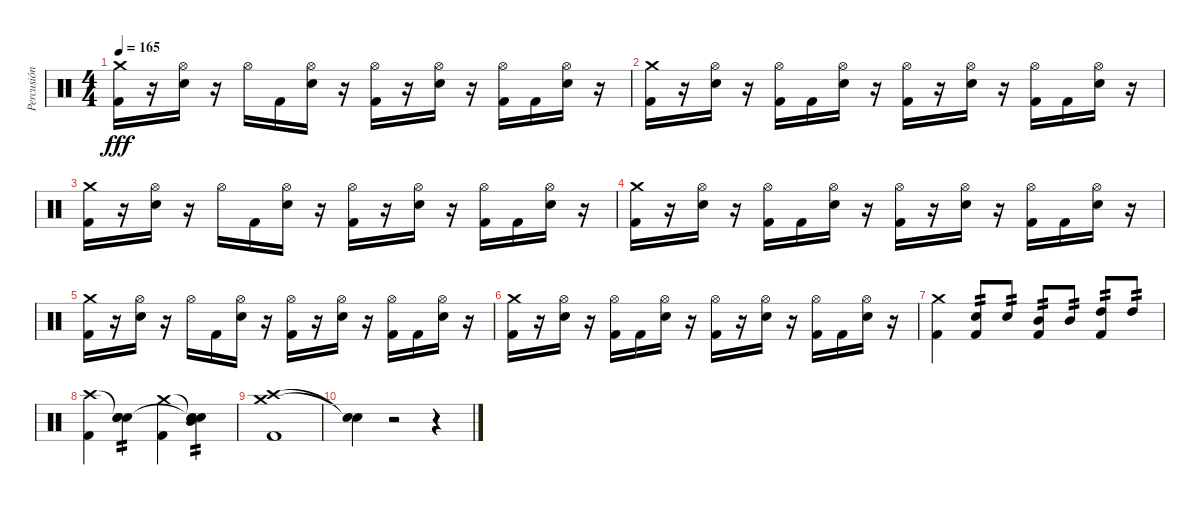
\track ("Percusión" "Percusión") {instrument percussion}
\staff {score}
\articulation defaults
\ts (4 4)
\tempo 165
\clef neutral
\ks c
("Crash medium (hit)" "Kick (hit) 2").16{dy fff} r.16 ("Hi-Hat (open)" "Electric Snare (hit)").16 r.16 "Hi-Hat (open)".16 "Kick (hit) 2".16 ("Hi-Hat (open)" "Electric Snare (hit)").16 r.16 ("Hi-Hat (open)" "Kick (hit) 2").16 r.16 ("Hi-Hat (open)" "Electric Snare (hit)").16 r.16 ("Hi-Hat (open)" "Kick (hit) 2").16 "Kick (hit) 2".16 ("Hi-Hat (open)" "Electric Snare (hit)").16 r.16 |
("Crash medium (hit)" "Kick (hit) 2").16 r.16 ("Hi-Hat (open)" "Electric Snare (hit)").16 r.16 ("Hi-Hat (open)" "Kick (hit) 2").16 "Kick (hit) 2".16 ("Hi-Hat (open)" "Electric Snare (hit)").16 r.16 ("Hi-Hat (open)" "Kick (hit) 2").16 r.16 ("Hi-Hat (open)" "Electric Snare (hit)").16 r.16 ("Hi-Hat (open)" "Kick (hit) 2").16 "Kick (hit) 2".16 ("Hi-Hat (open)" "Electric Snare (hit)").16 r.16 |
("Crash medium (hit)" "Kick (hit) 2").16 r.16 ("Hi-Hat (open)" "Electric Snare (hit)").16 r.16 "Hi-Hat (open)".16 "Kick (hit) 2".16 ("Hi-Hat (open)" "Electric Snare (hit)").16 r.16 ("Hi-Hat (open)" "Kick (hit) 2").16 r.16 ("Hi-Hat (open)" "Electric Snare (hit)").16 r.16 ("Hi-Hat (open)" "Kick (hit) 2").16 "Kick (hit) 2".16 ("Hi-Hat (open)" "Electric Snare (hit)").16 r.16 |
("Crash medium (hit)" "Kick (hit) 2").16 r.16 ("Hi-Hat (open)" "Electric Snare (hit)").16 r.16 ("Hi-Hat (open)" "Kick (hit) 2").16 "Kick (hit) 2".16 ("Hi-Hat (open)" "Electric Snare (hit)").16 r.16 ("Hi-Hat (open)" "Kick (hit) 2").16 r.16 ("Hi-Hat (open)" "Electric Snare (hit)").16 r.16 ("Hi-Hat (open)" "Kick (hit) 2").16 "Kick (hit) 2".16 ("Hi-Hat (open)" "Electric Snare (hit)").16 r.16 |
("Crash medium (hit)" "Kick (hit) 2").16 r.16 ("Hi-Hat (open)" "Electric Snare (hit)").16 r.16 "Hi-Hat (open)".16 "Kick (hit) 2".16 ("Hi-Hat (open)" "Electric Snare (hit)").16 r.16 ("Hi-Hat (open)" "Kick (hit) 2").16 r.16 ("Hi-Hat (open)" "Electric Snare (hit)").16 r.16 ("Hi-Hat (open)" "Kick (hit) 2").16 "Kick (hit) 2".16 ("Hi-Hat (open)" "Electric Snare (hit)").16 r.16 |
("Crash medium (hit)" "Kick (hit) 2").16 r.16 ("Hi-Hat (open)" "Electric Snare (hit)").16 r.16 ("Hi-Hat (open)" "Kick (hit) 2").16 "Kick (hit) 2".16 ("Hi-Hat (open)" "Electric Snare (hit)").16 r.16 ("Hi-Hat (open)" "Kick (hit) 2").16 r.16 ("Hi-Hat (open)" "Electric Snare (hit)").16 r.16 ("Hi-Hat (open)" "Kick (hit) 2").16 "Kick (hit) 2".16 ("Hi-Hat (open)" "Electric Snare (hit)").16 r.16 |
("Crash medium (hit)" "Kick (hit) 2").4 ("Electric Snare (hit)" "Kick (hit) 2").8{tp 2} "Electric Snare (hit)".8{tp 2} ("Mid Tom (hit)" "Kick (hit) 2").8{tp 2} "Mid Tom (hit)".8{tp 2} ("High Tom (hit)" "Kick (hit) 2").8{tp 2} "High Tom (hit)".8{tp 2} |
("Crash high (hit)" "Kick (hit) 2").4 ("Snare (hit)"{t} "Electric Snare (hit)" "Snare (hit)").4{tp 2} ("Crash medium (hit)" "Kick (hit) 2").4 ("Snare (hit)"{t} "Mid Tom (hit)" "Snare (hit)"{t}).4{tp 2} |
("Crash medium (hit)" "Crash high (hit)" "Kick (hit) 2").1 |
("Snare (hit)"{t} "Snare (hit)"{t}).4 r.2 r.4
